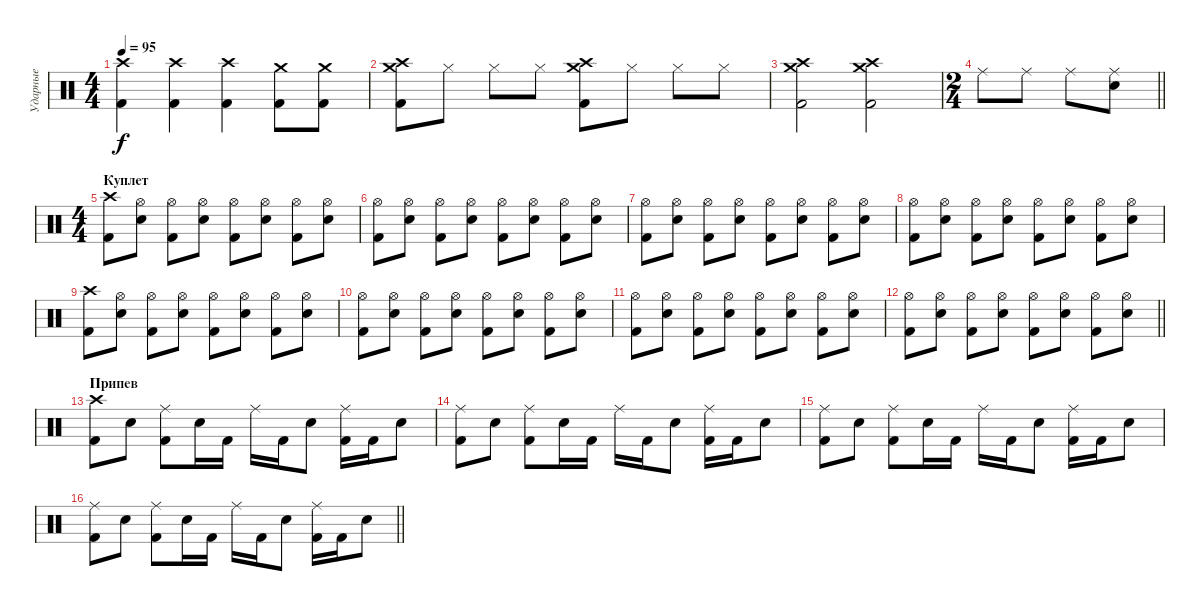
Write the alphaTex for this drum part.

\track ("Ударные" "Ударные") {instrument percussion}
\staff {score}
\articulation defaults
\ts (4 4)
\tempo 95
\clef neutral
\ks c
("Kick (hit) 2" "Crash high (hit)").4{dy f} ("Kick (hit) 2" "Crash high (hit)").4 ("Kick (hit) 2" "Crash high (hit)").4 ("Kick (hit) 2" "Crash medium (hit)").8 ("Kick (hit) 2" "Crash medium (hit)").8 |
("Kick (hit) 2" "Crash high (hit)" "Crash medium (hit)").8 "Hi-Hat (closed)".8 "Hi-Hat (closed)".8 "Hi-Hat (closed)".8 ("Kick (hit) 2" "Crash high (hit)" "Crash medium (hit)").8 "Hi-Hat (closed)".8 "Hi-Hat (closed)".8 "Hi-Hat (closed)".8 |
("Kick (hit) 2" "Crash high (hit)" "Crash medium (hit)").2 ("Kick (hit) 2" "Crash high (hit)" "Crash medium (hit)").2 |
\ts (2 4)
\barLineRight lightlight "Ride (middle)".8 "Ride (middle)".8 "Ride (middle)".8
("Ride (middle)" "Electric Snare (hit)").8 |
\ts (4 4)
\section ("" "Куплет")
("Kick (hit) 2" "Crash high (hit)").8 ("Electric Snare (hit)" "Hi-Hat (open)").8 ("Kick (hit) 2" "Hi-Hat (open)").8 ("Electric Snare (hit)" "Hi-Hat (open)").8 ("Kick (hit) 2" "Hi-Hat (open)").8 ("Electric Snare (hit)" "Hi-Hat (open)").8 ("Kick (hit) 2" "Hi-Hat (open)").8 ("Electric Snare (hit)" "Hi-Hat (open)").8 |
("Kick (hit) 2" "Hi-Hat (open)").8 ("Electric Snare (hit)" "Hi-Hat (open)").8 ("Kick (hit) 2" "Hi-Hat (open)").8 ("Electric Snare (hit)" "Hi-Hat (open)").8 ("Kick (hit) 2" "Hi-Hat (open)").8 ("Electric Snare (hit)" "Hi-Hat (open)").8 ("Kick (hit) 2" "Hi-Hat (open)").8 ("Electric Snare (hit)" "Hi-Hat (open)").8 |
("Kick (hit) 2" "Hi-Hat (open)").8 ("Electric Snare (hit)" "Hi-Hat (open)").8 ("Kick (hit) 2" "Hi-Hat (open)").8 ("Electric Snare (hit)" "Hi-Hat (open)").8 ("Kick (hit) 2" "Hi-Hat (open)").8 ("Electric Snare (hit)" "Hi-Hat (open)").8 ("Kick (hit) 2" "Hi-Hat (open)").8 ("Electric Snare (hit)" "Hi-Hat (open)").8 |
("Kick (hit) 2" "Hi-Hat (open)").8 ("Electric Snare (hit)" "Hi-Hat (open)").8 ("Kick (hit) 2" "Hi-Hat (open)").8 ("Electric Snare (hit)" "Hi-Hat (open)").8 ("Kick (hit) 2" "Hi-Hat (open)").8 ("Electric Snare (hit)" "Hi-Hat (open)").8 ("Kick (hit) 2" "Hi-Hat (open)").8 ("Electric Snare (hit)" "Hi-Hat (open)").8 |
("Kick (hit) 2" "Crash high (hit)").8 ("Electric Snare (hit)" "Hi-Hat (open)").8 ("Kick (hit) 2" "Hi-Hat (open)").8 ("Electric Snare (hit)" "Hi-Hat (open)").8 ("Kick (hit) 2" "Hi-Hat (open)").8 ("Electric Snare (hit)" "Hi-Hat (open)").8 ("Kick (hit) 2" "Hi-Hat (open)").8 ("Electric Snare (hit)" "Hi-Hat (open)").8 |
("Kick (hit) 2" "Hi-Hat (open)").8 ("Electric Snare (hit)" "Hi-Hat (open)").8 ("Kick (hit) 2" "Hi-Hat (open)").8 ("Electric Snare (hit)" "Hi-Hat (open)").8 ("Kick (hit) 2" "Hi-Hat (open)").8 ("Electric Snare (hit)" "Hi-Hat (open)").8 ("Kick (hit) 2" "Hi-Hat (open)").8 ("Electric Snare (hit)" "Hi-Hat (open)").8 |
("Kick (hit) 2" "Hi-Hat (open)").8 ("Electric Snare (hit)" "Hi-Hat (open)").8 ("Kick (hit) 2" "Hi-Hat (open)").8 ("Electric Snare (hit)" "Hi-Hat (open)").8 ("Kick (hit) 2" "Hi-Hat (open)").8 ("Electric Snare (hit)" "Hi-Hat (open)").8 ("Kick (hit) 2" "Hi-Hat (open)").8 ("Electric Snare (hit)" "Hi-Hat (open)").8 |
\barLineRight lightlight
("Kick (hit) 2" "Hi-Hat (open)").8 ("Electric Snare (hit)" "Hi-Hat (open)").8 ("Kick (hit) 2" "Hi-Hat (open)").8 ("Electric Snare (hit)" "Hi-Hat (open)").8 ("Kick (hit) 2" "Hi-Hat (open)").8 ("Electric Snare (hit)" "Hi-Hat (open)").8 ("Kick (hit) 2" "Hi-Hat (open)").8 ("Electric Snare (hit)" "Hi-Hat (open)").8 |
\section ("" "Припев")
("Kick (hit) 2" "Crash high (hit)").8 "Electric Snare (hit)".8 ("Kick (hit) 2" "Ride (middle)").8 "Electric Snare (hit)".16 "Kick (hit) 2".16 "Ride (middle)".16 "Kick (hit) 2".16 "Electric Snare (hit)".8 ("Kick (hit) 2" "Ride (middle)").16 "Kick (hit) 2".16 "Electric Snare (hit)".8 |
("Kick (hit) 2" "Ride (middle)").8 "Electric Snare (hit)".8 ("Kick (hit) 2" "Ride (middle)").8 "Electric Snare (hit)".16 "Kick (hit) 2".16 "Ride (middle)".16 "Kick (hit) 2".16 "Electric Snare (hit)".8 ("Kick (hit) 2" "Ride (middle)").16 "Kick (hit) 2".16 "Electric Snare (hit)".8 |
("Kick (hit) 2" "Ride (middle)").8 "Electric Snare (hit)".8 ("Kick (hit) 2" "Ride (middle)").8 "Electric Snare (hit)".16 "Kick (hit) 2".16 "Ride (middle)".16 "Kick (hit) 2".16 "Electric Snare (hit)".8 ("Kick (hit) 2" "Ride (middle)").16 "Kick (hit) 2".16 "Electric Snare (hit)".8 |
\barLineRight lightlight
("Kick (hit) 2" "Ride (middle)").8 "Electric Snare (hit)".8 ("Kick (hit) 2" "Ride (middle)").8 "Electric Snare (hit)".16 "Kick (hit) 2".16 "Ride (middle)".16 "Kick (hit) 2".16 "Electric Snare (hit)".8 ("Kick (hit) 2" "Ride (middle)").16 "Kick (hit) 2".16 "Electric Snare (hit)".8
